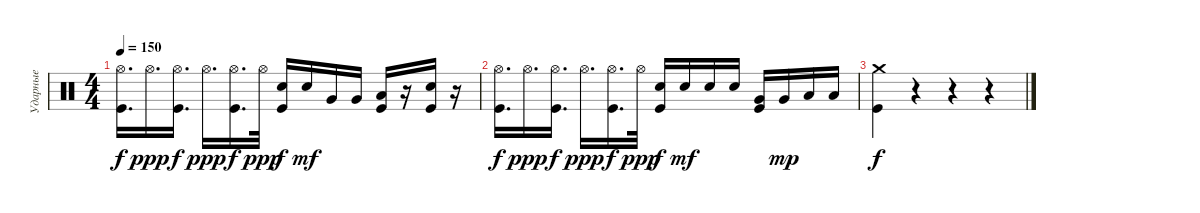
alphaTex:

\track ("Ударные" "Ударные") {instrument percussion}
\staff {score}
\articulation defaults
\ts (4 4)
\tempo 150
\clef neutral
\ks c
("Hi-Hat (open)" "Kick (hit)").16{d dy f} "Hi-Hat (open)".16{d dy ppp} ("Hi-Hat (open)" "Kick (hit)").16{d dy f} "Hi-Hat (open)".16{d dy ppp} ("Hi-Hat (open)" "Kick (hit)").16{d dy f} "Hi-Hat (open)".32{dy ppp} ("Electric Snare (hit)" "Kick (hit)").16{dy f} "Electric Snare (hit)".16{dy mf} "Very Low Tom (hit)".16 "Very Low Tom (hit)".16 ("Low Floor Tom (hit)" "Kick (hit)").16 r.16 ("Electric Snare (hit)" "Kick (hit)").16 r.16 |
("Hi-Hat (open)" "Kick (hit)").16{d dy f} "Hi-Hat (open)".16{d dy ppp} ("Hi-Hat (open)" "Kick (hit)").16{d dy f} "Hi-Hat (open)".16{d dy ppp} ("Hi-Hat (open)" "Kick (hit)").16{d dy f} "Hi-Hat (open)".32{dy ppp} ("Electric Snare (hit)" "Kick (hit)").16{dy f} "Electric Snare (hit)".16{dy mf} "Electric Snare (hit)".16 "Electric Snare (hit)".16 ("Very Low Tom (hit)" "Kick (hit)").16 "Very Low Tom (hit)".16{dy mp} "Low Floor Tom (hit)".16 "Low Floor Tom (hit)".16 |
("Crash medium (hit)" "Kick (hit)").4{dy f} r.4 r.4 r.4
